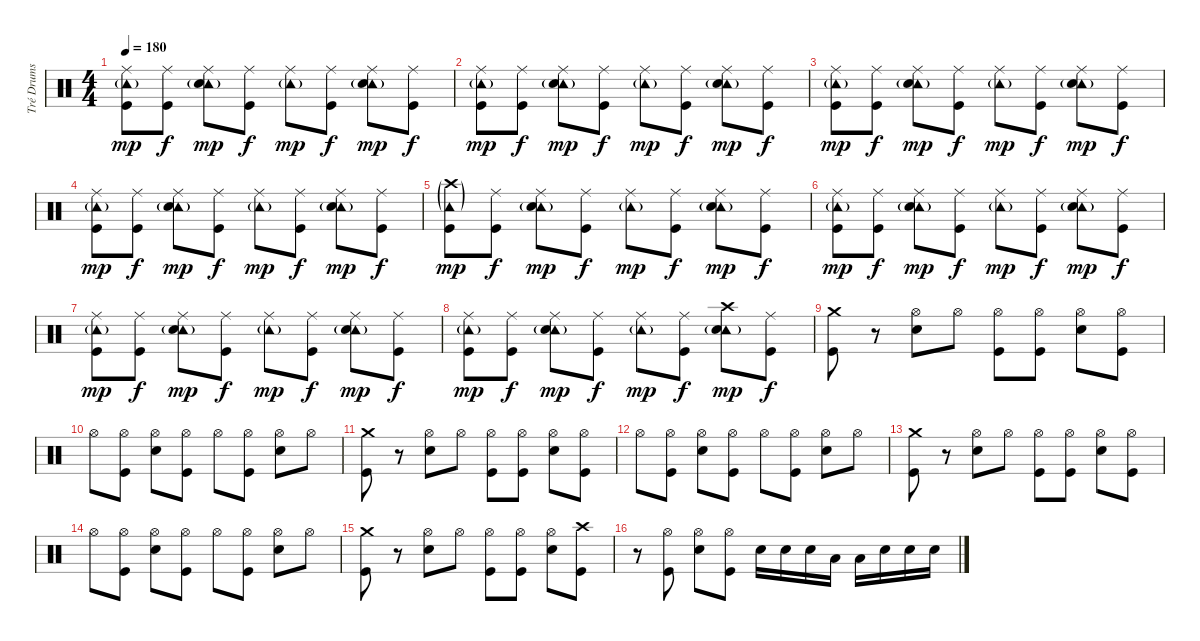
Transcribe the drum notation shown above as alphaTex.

\track ("Tré Drums" "Tré Drums") {instrument percussion}
\staff {score}
\articulation defaults
\ts (4 4)
\tempo 180
\clef neutral
\ks c
("Tambourine (hit)"{g} "Ride (middle)" "Kick (hit)").8{dy mp} ("Ride (middle)" "Kick (hit)").8{dy f} ("Tambourine (hit)"{g} "Ride (middle)" "Electric Snare (hit)").8{dy mp} ("Ride (middle)" "Kick (hit)").8{dy f} ("Tambourine (hit)"{g} "Ride (middle)").8{dy mp} ("Ride (middle)" "Kick (hit)").8{dy f} ("Tambourine (hit)"{g} "Ride (middle)" "Electric Snare (hit)").8{dy mp} ("Ride (middle)" "Kick (hit)").8{dy f} |
("Tambourine (hit)"{g} "Ride (middle)" "Kick (hit)").8{dy mp} ("Ride (middle)" "Kick (hit)").8{dy f} ("Tambourine (hit)"{g} "Ride (middle)" "Electric Snare (hit)").8{dy mp} ("Ride (middle)" "Kick (hit)").8{dy f} ("Tambourine (hit)"{g} "Ride (middle)").8{dy mp} ("Ride (middle)" "Kick (hit)").8{dy f} ("Tambourine (hit)"{g} "Ride (middle)" "Electric Snare (hit)").8{dy mp} ("Ride (middle)" "Kick (hit)").8{dy f} |
("Tambourine (hit)"{g} "Ride (middle)" "Kick (hit)").8{dy mp} ("Ride (middle)" "Kick (hit)").8{dy f} ("Tambourine (hit)"{g} "Ride (middle)" "Electric Snare (hit)").8{dy mp} ("Ride (middle)" "Kick (hit)").8{dy f} ("Tambourine (hit)"{g} "Ride (middle)").8{dy mp} ("Ride (middle)" "Kick (hit)").8{dy f} ("Tambourine (hit)"{g} "Ride (middle)" "Electric Snare (hit)").8{dy mp} ("Ride (middle)" "Kick (hit)").8{dy f} |
("Tambourine (hit)"{g} "Ride (middle)" "Kick (hit)").8{dy mp} ("Ride (middle)" "Kick (hit)").8{dy f} ("Tambourine (hit)"{g} "Ride (middle)" "Electric Snare (hit)").8{dy mp} ("Ride (middle)" "Kick (hit)").8{dy f} ("Tambourine (hit)"{g} "Ride (middle)").8{dy mp} ("Ride (middle)" "Kick (hit)").8{dy f} ("Tambourine (hit)"{g} "Ride (middle)" "Electric Snare (hit)").8{dy mp} ("Ride (middle)" "Kick (hit)").8{dy f} |
("Tambourine (hit)"{g} "Crash high (hit)"{g} "Kick (hit)").8{dy mp} ("Ride (middle)" "Kick (hit)").8{dy f} ("Tambourine (hit)"{g} "Ride (middle)" "Electric Snare (hit)").8{dy mp} ("Ride (middle)" "Kick (hit)").8{dy f} ("Tambourine (hit)"{g} "Ride (middle)").8{dy mp} ("Ride (middle)" "Kick (hit)").8{dy f} ("Tambourine (hit)"{g} "Ride (middle)" "Electric Snare (hit)").8{dy mp} ("Ride (middle)" "Kick (hit)").8{dy f} |
("Tambourine (hit)"{g} "Ride (middle)" "Kick (hit)").8{dy mp} ("Ride (middle)" "Kick (hit)").8{dy f} ("Tambourine (hit)"{g} "Ride (middle)" "Electric Snare (hit)").8{dy mp} ("Ride (middle)" "Kick (hit)").8{dy f} ("Tambourine (hit)"{g} "Ride (middle)").8{dy mp} ("Ride (middle)" "Kick (hit)").8{dy f} ("Tambourine (hit)"{g} "Ride (middle)" "Electric Snare (hit)").8{dy mp} ("Ride (middle)" "Kick (hit)").8{dy f} |
("Tambourine (hit)"{g} "Ride (middle)" "Kick (hit)").8{dy mp} ("Ride (middle)" "Kick (hit)").8{dy f} ("Tambourine (hit)"{g} "Ride (middle)" "Electric Snare (hit)").8{dy mp} ("Ride (middle)" "Kick (hit)").8{dy f} ("Tambourine (hit)"{g} "Ride (middle)").8{dy mp} ("Ride (middle)" "Kick (hit)").8{dy f} ("Tambourine (hit)"{g} "Ride (middle)" "Electric Snare (hit)").8{dy mp} ("Ride (middle)" "Kick (hit)").8{dy f} |
("Tambourine (hit)"{g} "Ride (middle)" "Kick (hit)").8{dy mp} ("Ride (middle)" "Kick (hit)").8{dy f} ("Tambourine (hit)"{g} "Ride (middle)" "Electric Snare (hit)").8{dy mp} ("Ride (middle)" "Kick (hit)").8{dy f} ("Tambourine (hit)"{g} "Ride (middle)").8{dy mp} ("Ride (middle)" "Kick (hit)").8{dy f} ("Tambourine (hit)"{g} "Crash high (hit)" "Electric Snare (hit)").8{dy mp} ("Ride (middle)" "Kick (hit)").8{dy f} |
("Crash medium (hit)" "Kick (hit)").8 r.8 ("Hi-Hat (open)" "Electric Snare (hit)").8 "Hi-Hat (open)".8 ("Hi-Hat (open)" "Kick (hit)").8 ("Hi-Hat (open)" "Kick (hit)").8 ("Hi-Hat (open)" "Electric Snare (hit)").8 ("Hi-Hat (open)" "Kick (hit)").8 |
"Hi-Hat (open)".8 ("Hi-Hat (open)" "Kick (hit)").8 ("Hi-Hat (open)" "Electric Snare (hit)").8 ("Hi-Hat (open)" "Kick (hit)").8 "Hi-Hat (open)".8 ("Hi-Hat (open)" "Kick (hit)").8 ("Hi-Hat (open)" "Electric Snare (hit)").8 "Hi-Hat (open)".8 |
("Crash medium (hit)" "Kick (hit)").8 r.8 ("Hi-Hat (open)" "Electric Snare (hit)").8 "Hi-Hat (open)".8 ("Hi-Hat (open)" "Kick (hit)").8 ("Hi-Hat (open)" "Kick (hit)").8 ("Hi-Hat (open)" "Electric Snare (hit)").8 ("Hi-Hat (open)" "Kick (hit)").8 |
"Hi-Hat (open)".8 ("Hi-Hat (open)" "Kick (hit)").8 ("Hi-Hat (open)" "Electric Snare (hit)").8 ("Hi-Hat (open)" "Kick (hit)").8 "Hi-Hat (open)".8 ("Hi-Hat (open)" "Kick (hit)").8 ("Hi-Hat (open)" "Electric Snare (hit)").8 "Hi-Hat (open)".8 |
("Crash medium (hit)" "Kick (hit)").8 r.8 ("Hi-Hat (open)" "Electric Snare (hit)").8 "Hi-Hat (open)".8 ("Hi-Hat (open)" "Kick (hit)").8 ("Hi-Hat (open)" "Kick (hit)").8 ("Hi-Hat (open)" "Electric Snare (hit)").8 ("Hi-Hat (open)" "Kick (hit)").8 |
"Hi-Hat (open)".8 ("Hi-Hat (open)" "Kick (hit)").8 ("Hi-Hat (open)" "Electric Snare (hit)").8 ("Hi-Hat (open)" "Kick (hit)").8 "Hi-Hat (open)".8 ("Hi-Hat (open)" "Kick (hit)").8 ("Hi-Hat (open)" "Electric Snare (hit)").8 "Hi-Hat (open)".8 |
("Crash medium (hit)" "Kick (hit)").8 r.8 ("Hi-Hat (open)" "Electric Snare (hit)").8 "Hi-Hat (open)".8 ("Hi-Hat (open)" "Kick (hit)").8 ("Hi-Hat (open)" "Kick (hit)").8 ("Hi-Hat (open)" "Electric Snare (hit)").8 ("Crash high (hit)" "Kick (hit)").8 |
r.8 ("Hi-Hat (open)" "Kick (hit)").8 ("Hi-Hat (open)" "Electric Snare (hit)").8 ("Hi-Hat (open)" "Kick (hit)").8 "Electric Snare (hit)".16 "Electric Snare (hit)".16 "Electric Snare (hit)".16 "Low Tom (hit)".16 "Low Tom (hit)".16 "Electric Snare (hit)".16 "Electric Snare (hit)".16 "Electric Snare (hit)".16
